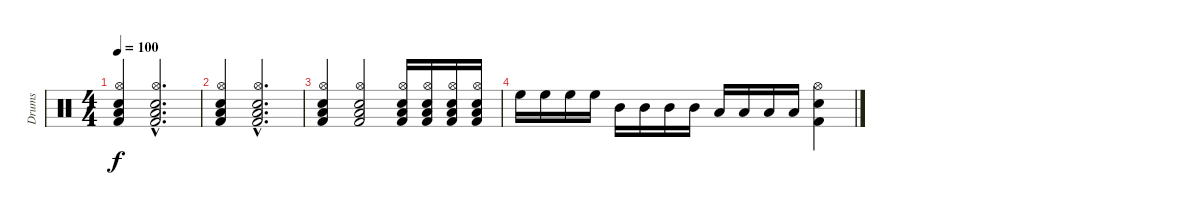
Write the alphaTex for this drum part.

\track ("Drums" "Drums") {instrument percussion}
\staff {score}
\articulation defaults
\ts (4 4)
\tempo 100
\clef neutral
\ks c
("Kick (hit) 2" "Snare (hit) 2" "Hi-Hat (open)" "Low Tom (hit)").4{dy f} ("Kick (hit) 2"{hac} "Snare (hit) 2"{hac} "Hi-Hat (open)"{hac} "Low Tom (hit)"{hac}).2{d} |
("Kick (hit) 2" "Snare (hit) 2" "Hi-Hat (open)" "Low Tom (hit)").4 ("Kick (hit) 2"{hac} "Snare (hit) 2"{hac} "Hi-Hat (open)"{hac} "Low Tom (hit)"{hac}).2{d} |
("Kick (hit) 2" "Snare (hit) 2" "Hi-Hat (open)" "Low Tom (hit)").4 ("Kick (hit) 2" "Snare (hit) 2" "Hi-Hat (open)" "Low Tom (hit)").2 ("Kick (hit) 2" "Snare (hit) 2" "Hi-Hat (open)" "Low Tom (hit)").16 ("Kick (hit) 2" "Snare (hit) 2" "Hi-Hat (open)" "Low Tom (hit)").16 ("Kick (hit) 2" "Snare (hit) 2" "Hi-Hat (open)" "Low Tom (hit)").16 ("Kick (hit) 2" "Snare (hit) 2" "Hi-Hat (open)" "Low Tom (hit)").16 |
"High Floor Tom (hit)".16 "High Floor Tom (hit)".16 "High Floor Tom (hit)".16 "High Floor Tom (hit)".16 "Mid Tom (hit)".16 "Mid Tom (hit)".16 "Mid Tom (hit)".16 "Mid Tom (hit)".16 "Low Tom (hit)".16 "Low Tom (hit)".16 "Low Tom (hit)".16 "Low Tom (hit)".16 ("Kick (hit) 2" "Snare (hit) 2" "Hi-Hat (open)").4
